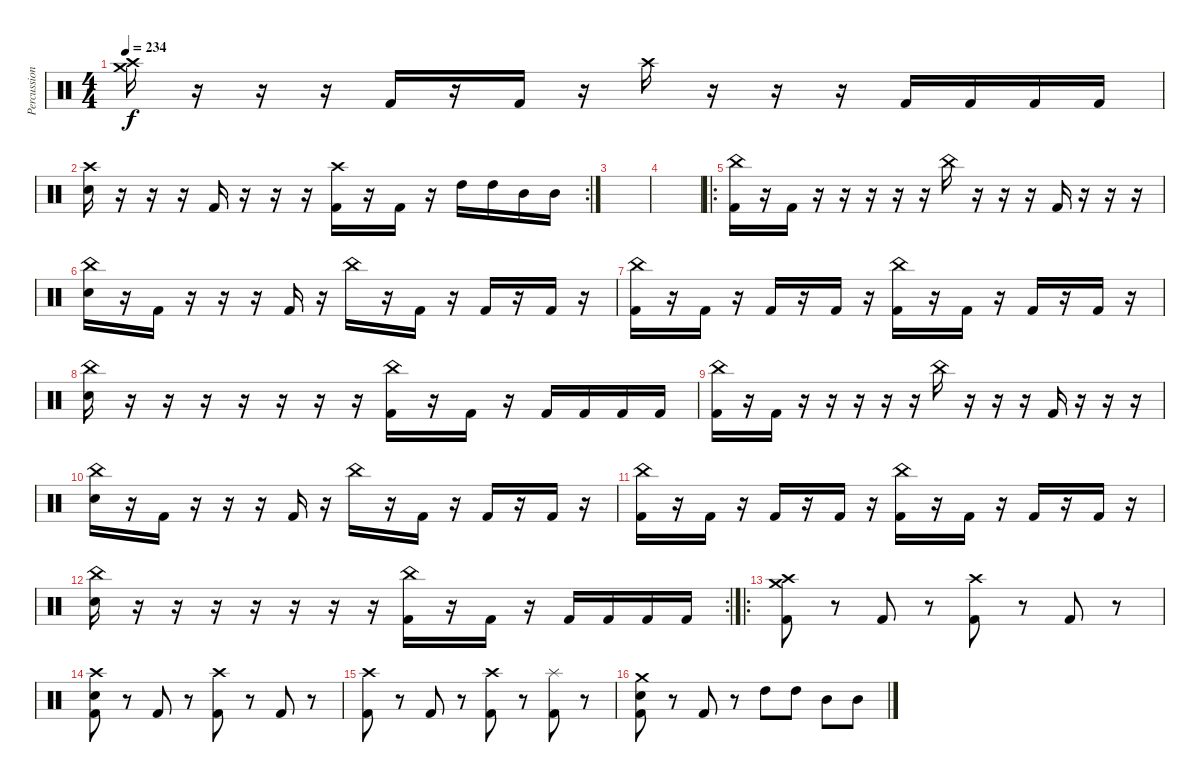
\track ("Percussion" "Percussion") {instrument percussion}
\staff {score}
\articulation defaults
\ts (4 4)
\tempo 234
\clef neutral
\ks c
("Crash high (hit)" "Crash medium (hit)").16{dy f} r.16 r.16 r.16 "Kick (hit) 2".16 r.16 "Kick (hit) 2".16 r.16 "Crash high (hit)".16 r.16 r.16 r.16 "Kick (hit) 2".16 "Kick (hit) 2".16 "Kick (hit) 2".16 "Kick (hit) 2".16 |
\rc 2
("Crash high (hit)" "Electric Snare (hit)").16 r.16 r.16 r.16 "Kick (hit) 2".16 r.16 r.16 r.16 ("Crash high (hit)" "Kick (hit) 2").16 r.16 "Kick (hit) 2".16 r.16 "High Tom (hit)".16 "High Tom (hit)".16 "Mid Tom (hit)".16 "Mid Tom (hit)".16 |
|
|
\ro
("China (hit)" "Kick (hit) 2").16 r.16 "Kick (hit) 2".16 r.16 r.16 r.16 r.16 r.16 "China (hit)".16 r.16 r.16 r.16 "Kick (hit) 2".16 r.16 r.16 r.16 |
("China (hit)" "Electric Snare (hit)").16 r.16 "Kick (hit) 2".16 r.16 r.16 r.16 "Kick (hit) 2".16 r.16 "China (hit)".16 r.16 "Kick (hit) 2".16 r.16 "Kick (hit) 2".16 r.16 "Kick (hit) 2".16 r.16 |
("China (hit)" "Kick (hit) 2").16 r.16 "Kick (hit) 2".16 r.16 "Kick (hit) 2".16 r.16 "Kick (hit) 2".16 r.16 ("China (hit)" "Kick (hit) 2").16 r.16 "Kick (hit) 2".16 r.16 "Kick (hit) 2".16 r.16 "Kick (hit) 2".16 r.16 |
("China (hit)" "Electric Snare (hit)").16 r.16 r.16 r.16 r.16 r.16 r.16 r.16 ("China (hit)" "Kick (hit) 2").16 r.16 "Kick (hit) 2".16 r.16 "Kick (hit) 2".16 "Kick (hit) 2".16 "Kick (hit) 2".16 "Kick (hit) 2".16 |
("China (hit)" "Kick (hit) 2").16 r.16 "Kick (hit) 2".16 r.16 r.16 r.16 r.16 r.16 "China (hit)".16 r.16 r.16 r.16 "Kick (hit) 2".16 r.16 r.16 r.16 |
("China (hit)" "Electric Snare (hit)").16 r.16 "Kick (hit) 2".16 r.16 r.16 r.16 "Kick (hit) 2".16 r.16 "China (hit)".16 r.16 "Kick (hit) 2".16 r.16 "Kick (hit) 2".16 r.16 "Kick (hit) 2".16 r.16 |
("China (hit)" "Kick (hit) 2").16 r.16 "Kick (hit) 2".16 r.16 "Kick (hit) 2".16 r.16 "Kick (hit) 2".16 r.16 ("China (hit)" "Kick (hit) 2").16 r.16 "Kick (hit) 2".16 r.16 "Kick (hit) 2".16 r.16 "Kick (hit) 2".16 r.16 |
\rc 2
("China (hit)" "Electric Snare (hit)").16 r.16 r.16 r.16 r.16 r.16 r.16 r.16 ("China (hit)" "Kick (hit) 2").16 r.16 "Kick (hit) 2".16 r.16 "Kick (hit) 2".16 "Kick (hit) 2".16 "Kick (hit) 2".16 "Kick (hit) 2".16 |
\ro
("Crash medium (hit)" "Crash high (hit)" "Kick (hit) 2").8 r.8 "Kick (hit) 2".8 r.8 ("Crash high (hit)" "Kick (hit) 2").8 r.8 "Kick (hit) 2".8 r.8 |
("Crash high (hit)" "Electric Snare (hit)" "Kick (hit) 2").8 r.8 "Kick (hit) 2".8 r.8 ("Crash high (hit)" "Kick (hit) 2").8 r.8 "Kick (hit) 2".8 r.8 |
("Crash high (hit)" "Kick (hit) 2").8 r.8 "Kick (hit) 2".8 r.8 ("Crash high (hit)" "Kick (hit) 2").8 r.8 ("Splash (hit)" "Kick (hit) 2").8 r.8 |
("Crash medium (hit)" "Electric Snare (hit)" "Kick (hit) 2").8 r.8 "Kick (hit) 2".8 r.8 "High Tom (hit)".8 "High Tom (hit)".8 "Mid Tom (hit)".8 "Mid Tom (hit)".8
